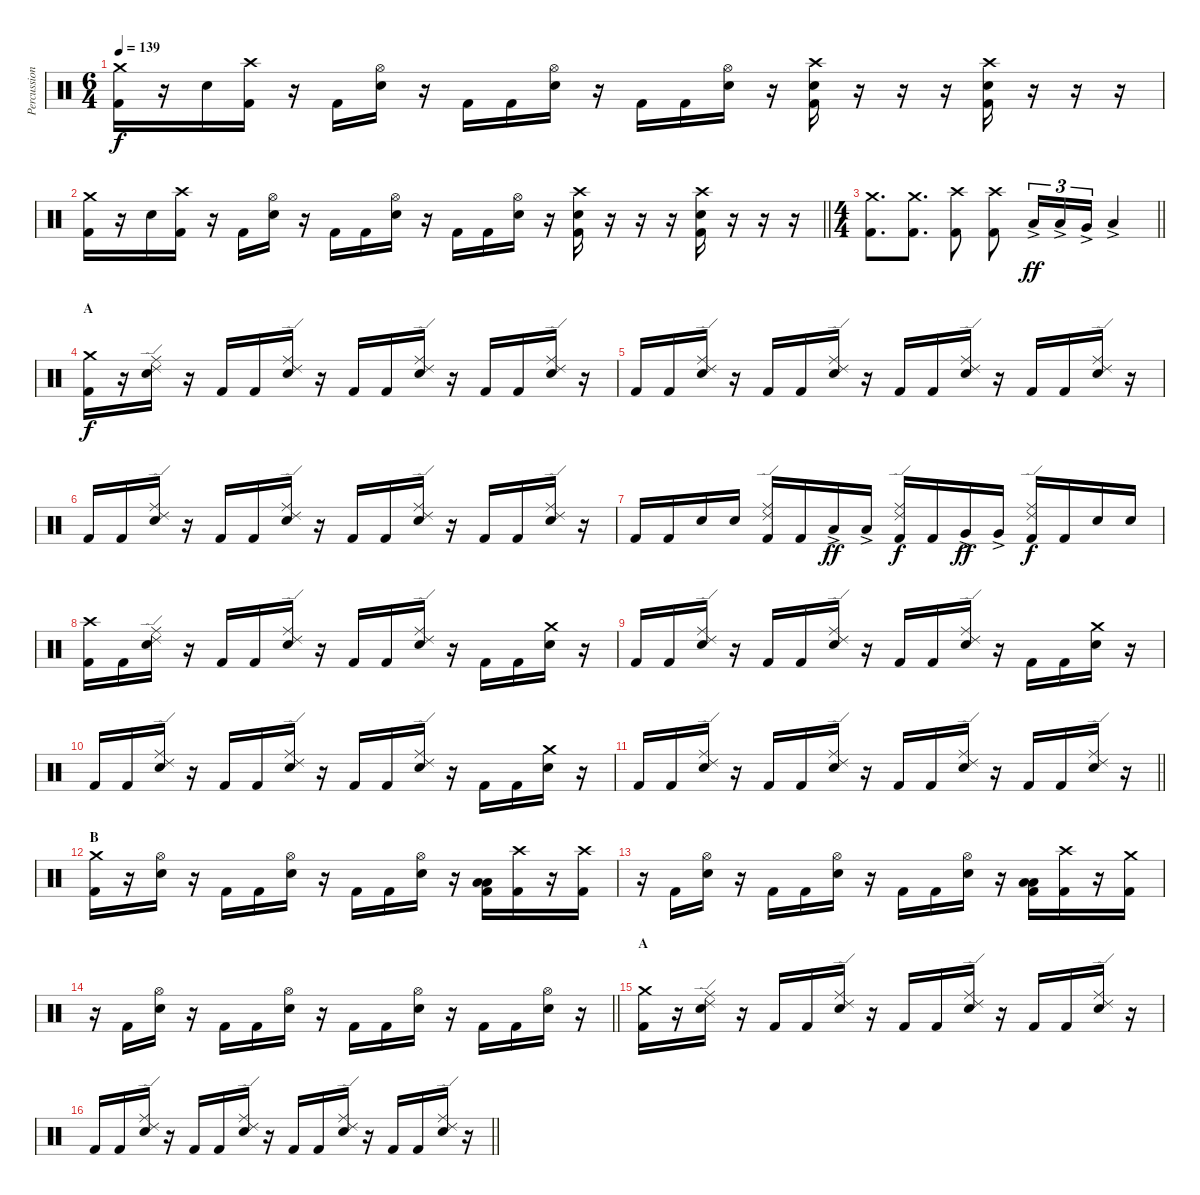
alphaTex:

\track ("Percussion" "Percussion") {instrument percussion}
\staff {score}
\articulation defaults
\ts (6 4)
\tempo 139
\clef neutral
\ks c
("Crash medium (hit)" "Kick (hit) 2").16{dy f} r.16 "Electric Snare (hit)".16 ("Crash high (hit)" "Kick (hit) 2").16 r.16 "Kick (hit) 2".16 ("Hi-Hat (open)" "Electric Snare (hit)").16 r.16 "Kick (hit) 2".16 "Kick (hit) 2".16 ("Hi-Hat (open)" "Electric Snare (hit)").16 r.16 "Kick (hit) 2".16 "Kick (hit) 2".16 ("Hi-Hat (open)" "Electric Snare (hit)").16 r.16 ("Crash high (hit)" "Electric Snare (hit)" "Kick (hit) 2").16 r.16 r.16 r.16 ("Crash high (hit)" "Electric Snare (hit)" "Kick (hit) 2").16 r.16 r.16 r.16 |
\barLineRight lightlight
("Crash medium (hit)" "Kick (hit) 2").16 r.16 "Electric Snare (hit)".16 ("Crash high (hit)" "Kick (hit) 2").16 r.16 "Kick (hit) 2".16 ("Hi-Hat (open)" "Electric Snare (hit)").16 r.16 "Kick (hit) 2".16 "Kick (hit) 2".16 ("Hi-Hat (open)" "Electric Snare (hit)").16 r.16 "Kick (hit) 2".16 "Kick (hit) 2".16 ("Hi-Hat (open)" "Electric Snare (hit)").16 r.16 ("Crash high (hit)" "Electric Snare (hit)" "Kick (hit) 2").16 r.16 r.16 r.16 ("Crash high (hit)" "Electric Snare (hit)" "Kick (hit) 2").16 r.16 r.16 r.16 |
\ts (4 4)
\barLineRight lightlight
("Crash medium (hit)" "Kick (hit) 2").8{d} ("Crash medium (hit)" "Kick (hit) 2").8{d} ("Crash high (hit)" "Kick (hit) 2").8 ("Crash high (hit)" "Kick (hit) 2").8 "Low Tom (hit)"{ac}.16{tu (3 2) dy ff} "Low Tom (hit)"{ac}.16{tu (3 2)} "Very Low Tom (hit)"{ac}.16{tu (3 2)} "Low Floor Tom (hit)"{ac}.4 |
\section ("" "A")
("Crash medium (hit)" "Kick (hit) 2").16{dy f} r.16 ("Ride (middle)" "Ride (edge) 2" "Electric Snare (hit)").16 r.16 "Kick (hit) 2".16 "Kick (hit) 2".16 ("Ride (middle)" "Ride (edge) 2" "Electric Snare (hit)").16 r.16 "Kick (hit) 2".16 "Kick (hit) 2".16 ("Ride (middle)" "Ride (edge) 2" "Electric Snare (hit)").16 r.16 "Kick (hit) 2".16 "Kick (hit) 2".16 ("Ride (middle)" "Ride (edge) 2" "Electric Snare (hit)").16 r.16 |
"Kick (hit) 2".16 "Kick (hit) 2".16 ("Ride (middle)" "Ride (edge) 2" "Electric Snare (hit)").16 r.16 "Kick (hit) 2".16 "Kick (hit) 2".16 ("Ride (middle)" "Ride (edge) 2" "Electric Snare (hit)").16 r.16 "Kick (hit) 2".16 "Kick (hit) 2".16 ("Ride (middle)" "Ride (edge) 2" "Electric Snare (hit)").16 r.16 "Kick (hit) 2".16 "Kick (hit) 2".16 ("Ride (middle)" "Ride (edge) 2" "Electric Snare (hit)").16 r.16 |
"Kick (hit) 2".16 "Kick (hit) 2".16 ("Ride (middle)" "Ride (edge) 2" "Electric Snare (hit)").16 r.16 "Kick (hit) 2".16 "Kick (hit) 2".16 ("Ride (middle)" "Ride (edge) 2" "Electric Snare (hit)").16 r.16 "Kick (hit) 2".16 "Kick (hit) 2".16 ("Ride (middle)" "Ride (edge) 2" "Electric Snare (hit)").16 r.16 "Kick (hit) 2".16 "Kick (hit) 2".16 ("Ride (middle)" "Ride (edge) 2" "Electric Snare (hit)").16 r.16 |
"Kick (hit) 2".16 "Kick (hit) 2".16 "Electric Snare (hit)".16 "Electric Snare (hit)".16 ("Ride (middle)" "Ride (edge) 2" "Kick (hit) 2").16 "Kick (hit) 2".16 "Low Tom (hit)"{ac}.16{dy ff} "Low Tom (hit)"{ac}.16 ("Ride (middle)" "Ride (edge) 2" "Kick (hit) 2").16{dy f} "Kick (hit) 2".16 "Very Low Tom (hit)"{ac}.16{dy ff} "Very Low Tom (hit)"{ac}.16 ("Ride (middle)" "Ride (edge) 2" "Kick (hit) 2").16{dy f} "Kick (hit) 2".16 "Electric Snare (hit)".16 "Electric Snare (hit)".16 |
("Crash high (hit)" "Kick (hit) 2").16 "Kick (hit) 2".16 ("Ride (middle)" "Ride (edge) 2" "Electric Snare (hit)").16 r.16 "Kick (hit) 2".16 "Kick (hit) 2".16 ("Ride (middle)" "Ride (edge) 2" "Electric Snare (hit)").16 r.16 "Kick (hit) 2".16 "Kick (hit) 2".16 ("Ride (middle)" "Ride (edge) 2" "Electric Snare (hit)").16 r.16 "Kick (hit) 2".16 "Kick (hit) 2".16 ("Crash medium (hit)" "Electric Snare (hit)").16 r.16 |
"Kick (hit) 2".16 "Kick (hit) 2".16 ("Ride (middle)" "Ride (edge) 2" "Electric Snare (hit)").16 r.16 "Kick (hit) 2".16 "Kick (hit) 2".16 ("Ride (middle)" "Ride (edge) 2" "Electric Snare (hit)").16 r.16 "Kick (hit) 2".16 "Kick (hit) 2".16 ("Ride (middle)" "Ride (edge) 2" "Electric Snare (hit)").16 r.16 "Kick (hit) 2".16 "Kick (hit) 2".16 ("Crash medium (hit)" "Electric Snare (hit)").16 r.16 |
"Kick (hit) 2".16 "Kick (hit) 2".16 ("Ride (middle)" "Ride (edge) 2" "Electric Snare (hit)").16 r.16 "Kick (hit) 2".16 "Kick (hit) 2".16 ("Ride (middle)" "Ride (edge) 2" "Electric Snare (hit)").16 r.16 "Kick (hit) 2".16 "Kick (hit) 2".16 ("Ride (middle)" "Ride (edge) 2" "Electric Snare (hit)").16 r.16 "Kick (hit) 2".16 "Kick (hit) 2".16 ("Crash medium (hit)" "Electric Snare (hit)").16 r.16 |
\barLineRight lightlight "Kick (hit) 2".16 "Kick (hit) 2".16
("Ride (middle)" "Ride (edge) 2" "Electric Snare (hit)").16 r.16 "Kick (hit) 2".16 "Kick (hit) 2".16 ("Ride (middle)" "Ride (edge) 2" "Electric Snare (hit)").16 r.16 "Kick (hit) 2".16 "Kick (hit) 2".16 ("Ride (middle)" "Ride (edge) 2" "Electric Snare (hit)").16 r.16 "Kick (hit) 2".16 "Kick (hit) 2".16 ("Ride (middle)" "Ride (edge) 2" "Electric Snare (hit)").16 r.16 |
\section ("" "B")
("Crash medium (hit)" "Kick (hit) 2").16 r.16 ("Hi-Hat (open)" "Electric Snare (hit)").16 r.16 "Kick (hit) 2".16 "Kick (hit) 2".16 ("Hi-Hat (open)" "Electric Snare (hit)").16 r.16 "Kick (hit) 2".16 "Kick (hit) 2".16 ("Hi-Hat (open)" "Electric Snare (hit)").16 r.16 ("Low Tom (hit)" "Low Floor Tom (hit)" "Kick (hit) 2").16 ("Crash high (hit)" "Kick (hit) 2").16 r.16 ("Crash high (hit)" "Kick (hit) 2").16 |
r.16 "Kick (hit) 2".16 ("Hi-Hat (open)" "Electric Snare (hit)").16 r.16 "Kick (hit) 2".16 "Kick (hit) 2".16 ("Hi-Hat (open)" "Electric Snare (hit)").16 r.16 "Kick (hit) 2".16 "Kick (hit) 2".16 ("Hi-Hat (open)" "Electric Snare (hit)").16 r.16 ("Low Tom (hit)" "Low Floor Tom (hit)" "Kick (hit) 2").16 ("Crash high (hit)" "Kick (hit) 2").16 r.16 ("Crash medium (hit)" "Kick (hit) 2").16 |
\barLineRight lightlight
r.16 "Kick (hit) 2".16 ("Hi-Hat (open)" "Electric Snare (hit)").16 r.16 "Kick (hit) 2".16 "Kick (hit) 2".16 ("Hi-Hat (open)" "Electric Snare (hit)").16 r.16 "Kick (hit) 2".16 "Kick (hit) 2".16 ("Hi-Hat (open)" "Electric Snare (hit)").16 r.16 "Kick (hit) 2".16 "Kick (hit) 2".16 ("Hi-Hat (open)" "Electric Snare (hit)").16 r.16 |
\section ("" "A")
("Crash medium (hit)" "Kick (hit) 2").16 r.16 ("Ride (middle)" "Ride (edge) 2" "Electric Snare (hit)").16 r.16 "Kick (hit) 2".16 "Kick (hit) 2".16 ("Ride (middle)" "Ride (edge) 2" "Electric Snare (hit)").16 r.16 "Kick (hit) 2".16 "Kick (hit) 2".16 ("Ride (middle)" "Ride (edge) 2" "Electric Snare (hit)").16 r.16 "Kick (hit) 2".16 "Kick (hit) 2".16 ("Ride (middle)" "Ride (edge) 2" "Electric Snare (hit)").16 r.16 |
\barLineRight lightlight "Kick (hit) 2".16 "Kick (hit) 2".16
("Ride (middle)" "Ride (edge) 2" "Electric Snare (hit)").16 r.16 "Kick (hit) 2".16 "Kick (hit) 2".16 ("Ride (middle)" "Ride (edge) 2" "Electric Snare (hit)").16 r.16 "Kick (hit) 2".16 "Kick (hit) 2".16 ("Ride (middle)" "Ride (edge) 2" "Electric Snare (hit)").16 r.16 "Kick (hit) 2".16 "Kick (hit) 2".16 ("Ride (middle)" "Ride (edge) 2" "Electric Snare (hit)").16 r.16
